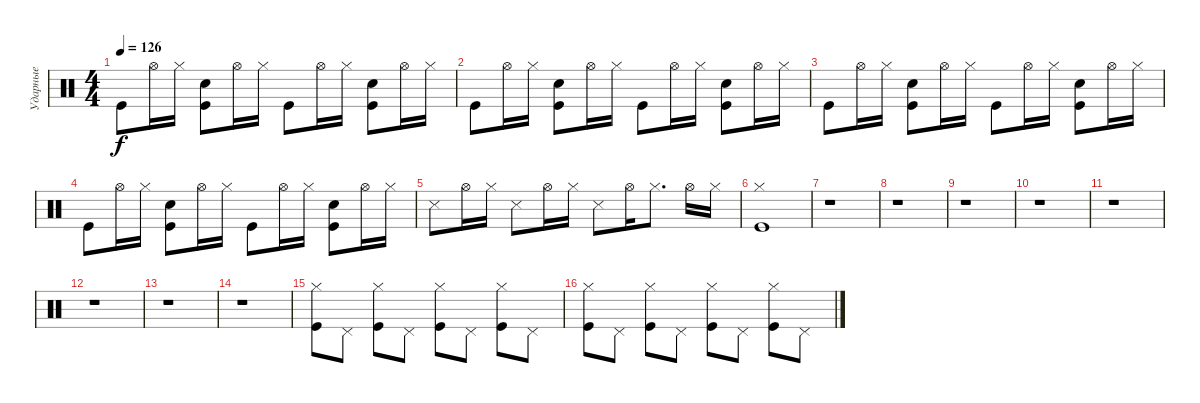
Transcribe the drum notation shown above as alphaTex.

\track ("Ударные" "Ударные") {instrument percussion}
\staff {score}
\articulation defaults
\ts (4 4)
\tempo 126
\clef neutral
\ks c "Kick (hit)".8{dy f} "Hi-Hat (open)".16 "Hi-Hat (closed)".16
("Kick (hit)" "Snare (hit) 2").8 "Hi-Hat (open)".16 "Hi-Hat (closed)".16 "Kick (hit)".8 "Hi-Hat (open)".16 "Hi-Hat (closed)".16 ("Kick (hit)" "Snare (hit) 2").8 "Hi-Hat (open)".16 "Hi-Hat (closed)".16 |
"Kick (hit)".8 "Hi-Hat (open)".16 "Hi-Hat (closed)".16 ("Kick (hit)" "Snare (hit) 2").8 "Hi-Hat (open)".16 "Hi-Hat (closed)".16 "Kick (hit)".8 "Hi-Hat (open)".16 "Hi-Hat (closed)".16 ("Kick (hit)" "Snare (hit) 2").8 "Hi-Hat (open)".16 "Hi-Hat (closed)".16 |
"Kick (hit)".8 "Hi-Hat (open)".16 "Hi-Hat (closed)".16 ("Kick (hit)" "Snare (hit) 2").8 "Hi-Hat (open)".16 "Hi-Hat (closed)".16 "Kick (hit)".8 "Hi-Hat (open)".16 "Hi-Hat (closed)".16 ("Kick (hit)" "Snare (hit) 2").8 "Hi-Hat (open)".16 "Hi-Hat (closed)".16 |
"Kick (hit)".8 "Hi-Hat (open)".16 "Hi-Hat (closed)".16 ("Kick (hit)" "Snare (hit) 2").8 "Hi-Hat (open)".16 "Hi-Hat (closed)".16 "Kick (hit)".8 "Hi-Hat (open)".16 "Hi-Hat (closed)".16 ("Kick (hit)" "Snare (hit) 2").8 "Hi-Hat (open)".16 "Hi-Hat (closed)".16 |
"Snare (side stick) 3".8 "Hi-Hat (open)".16 "Hi-Hat (closed)".16 "Snare (side stick) 3".8 "Hi-Hat (open)".16 "Hi-Hat (closed)".16 "Snare (side stick) 3".8 "Hi-Hat (open)".16 "Hi-Hat (closed)".8{d} "Hi-Hat (open)".16 "Hi-Hat (closed)".16 |
("Kick (hit)" "Hi-Hat (closed)").1 |
r.1 |
r.1 |
r.1 |
r.1 |
r.1 |
r.1 |
r.1 |
r.1 |
("Hi-Hat (closed)" "Kick (hit)").8 "Pedal Hi-Hat (hit)".8 ("Hi-Hat (closed)" "Kick (hit)").8 "Pedal Hi-Hat (hit)".8 ("Hi-Hat (closed)" "Kick (hit)").8 "Pedal Hi-Hat (hit)".8 ("Hi-Hat (closed)" "Kick (hit)").8 "Pedal Hi-Hat (hit)".8 |
("Hi-Hat (closed)" "Kick (hit)").8 "Pedal Hi-Hat (hit)".8 ("Hi-Hat (closed)" "Kick (hit)").8 "Pedal Hi-Hat (hit)".8 ("Hi-Hat (closed)" "Kick (hit)").8 "Pedal Hi-Hat (hit)".8 ("Hi-Hat (closed)" "Kick (hit)").8 "Pedal Hi-Hat (hit)".8
